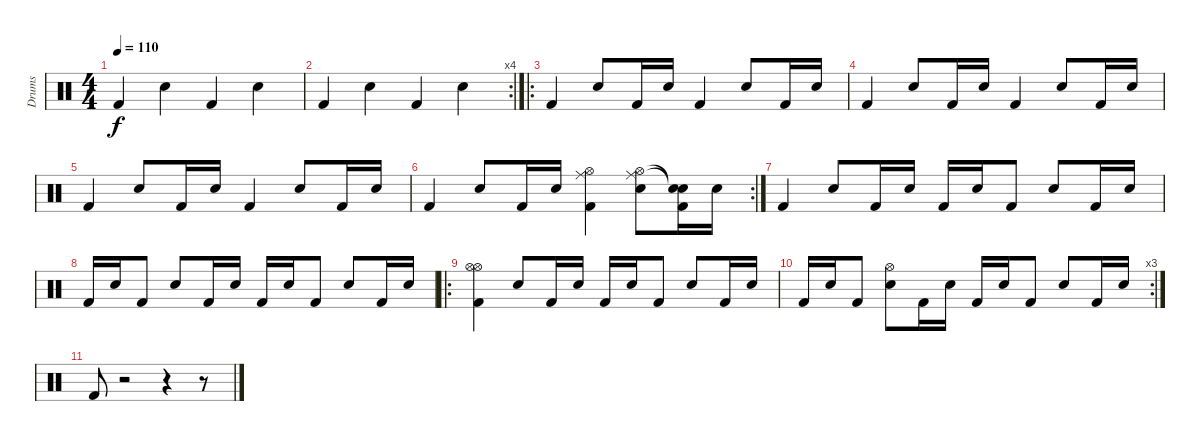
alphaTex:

\track ("Drums" "Drums") {instrument percussion}
\staff {score}
\articulation defaults
\ts (4 4)
\tempo 110
\clef neutral
\ks c "Kick (hit) 2".4{dy f} "Snare (hit) 2".4 "Kick (hit) 2".4 "Snare (hit) 2".4
|
\rc 4 "Kick (hit) 2".4 "Snare (hit) 2".4 "Kick (hit) 2".4 "Snare (hit) 2".4
|
\ro "Kick (hit) 2".4 "Snare (hit) 2".8 "Kick (hit) 2".16 "Snare (hit) 2".16 "Kick (hit) 2".4 "Snare (hit) 2".8 "Kick (hit) 2".16 "Snare (hit) 2".16
|
"Kick (hit) 2".4 "Snare (hit) 2".8 "Kick (hit) 2".16 "Snare (hit) 2".16 "Kick (hit) 2".4 "Snare (hit) 2".8 "Kick (hit) 2".16 "Snare (hit) 2".16 |
"Kick (hit) 2".4 "Snare (hit) 2".8 "Kick (hit) 2".16 "Snare (hit) 2".16 "Kick (hit) 2".4 "Snare (hit) 2".8 "Kick (hit) 2".16 "Snare (hit) 2".16 |
\rc 2 "Kick (hit) 2".4 "Snare (hit) 2".8 "Kick (hit) 2".16 "Snare (hit) 2".16
("Hi-Hat (open)" "Kick (hit) 2" "Ride (middle)").4 ("Hi-Hat (open)" "Snare (hit) 2" "Ride (middle)").8 ("Snare (hit)"{t} "Kick (hit) 2" "Snare (hit)"{t}).16 "Snare (hit) 2".16 |
"Kick (hit) 2".4 "Snare (hit) 2".8 "Kick (hit) 2".16 "Snare (hit) 2".16 "Kick (hit) 2".16 "Snare (hit) 2".16 "Kick (hit) 2".8 "Snare (hit) 2".8 "Kick (hit) 2".16 "Snare (hit) 2".16 |
"Kick (hit) 2".16 "Snare (hit) 2".16 "Kick (hit) 2".8 "Snare (hit) 2".8 "Kick (hit) 2".16 "Snare (hit) 2".16 "Kick (hit) 2".16 "Snare (hit) 2".16 "Kick (hit) 2".8 "Snare (hit) 2".8 "Kick (hit) 2".16 "Snare (hit) 2".16 |
\ro
("Hi-Hat (open)" "Kick (hit) 2" "Hi-Hat (open)").4 "Snare (hit) 2".8 "Kick (hit) 2".16 "Snare (hit) 2".16 "Kick (hit) 2".16 "Snare (hit) 2".16 "Kick (hit) 2".8 "Snare (hit) 2".8 "Kick (hit) 2".16 "Snare (hit) 2".16 |
\rc 3 "Kick (hit) 2".16 "Snare (hit) 2".16 "Kick (hit) 2".8
("Hi-Hat (open)" "Snare (hit) 2").8 "Kick (hit) 2".16 "Snare (hit) 2".16 "Kick (hit) 2".16 "Snare (hit) 2".16 "Kick (hit) 2".8 "Snare (hit) 2".8 "Kick (hit) 2".16 "Snare (hit) 2".16 |
"Kick (hit) 2".8 r.2 r.4 r.8
